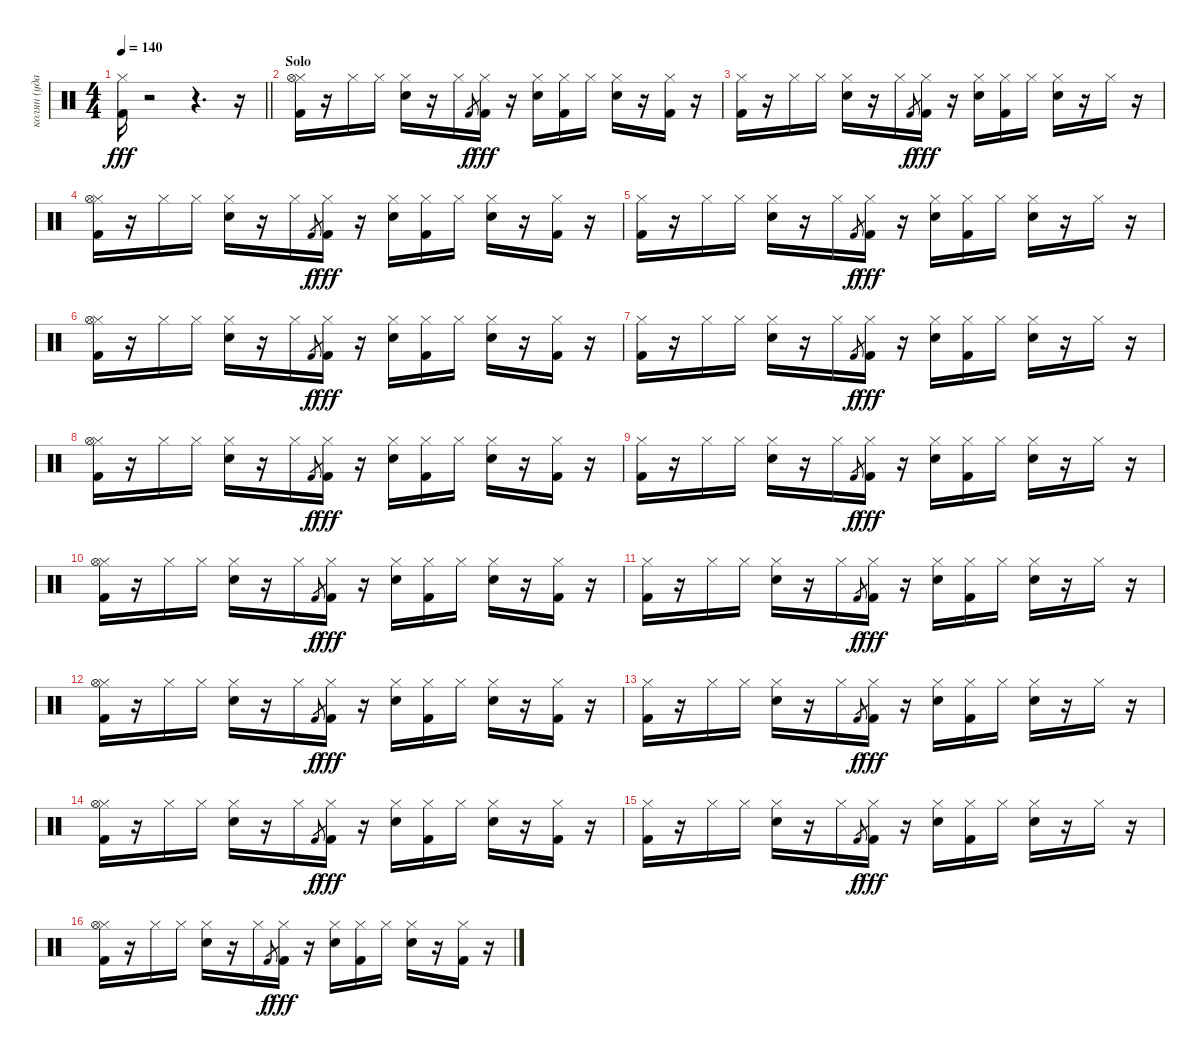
\track ("колян (ударные)" "колян (уда") {instrument percussion}
\staff {score}
\articulation defaults
\ts (4 4)
\tempo 140
\clef neutral
\barLineRight lightlight
\ks c
("Hi-Hat (closed)" "Kick (hit) 2").16{dy fff} r.2 r.4{d} r.16 |
\section ("" "Solo")
("Hi-Hat (closed)" "Hi-Hat (open)" "Kick (hit) 2").16 r.16 "Hi-Hat (closed)".16 "Hi-Hat (closed)".16 ("Hi-Hat (closed)" "Electric Snare (hit)").16 r.16 "Hi-Hat (closed)".16 "Kick (hit) 2".8{gr dy f} ("Hi-Hat (closed)" "Kick (hit) 2").16{dy fff} r.16 ("Hi-Hat (closed)" "Electric Snare (hit)").16 ("Hi-Hat (closed)" "Kick (hit) 2").16 "Hi-Hat (closed)".16 ("Hi-Hat (closed)" "Electric Snare (hit)").16 r.16 ("Hi-Hat (closed)" "Kick (hit) 2").16 r.16 |
("Hi-Hat (closed)" "Kick (hit) 2").16 r.16 "Hi-Hat (closed)".16 "Hi-Hat (closed)".16 ("Hi-Hat (closed)" "Electric Snare (hit)").16 r.16 "Hi-Hat (closed)".16 "Kick (hit) 2".8{gr dy f} ("Hi-Hat (closed)" "Kick (hit) 2").16{dy fff} r.16 ("Hi-Hat (closed)" "Electric Snare (hit)").16 ("Hi-Hat (closed)" "Kick (hit) 2").16 "Hi-Hat (closed)".16 ("Hi-Hat (closed)" "Electric Snare (hit)").16 r.16 "Hi-Hat (closed)".16 r.16 |
("Hi-Hat (closed)" "Hi-Hat (open)" "Kick (hit) 2").16 r.16 "Hi-Hat (closed)".16 "Hi-Hat (closed)".16 ("Hi-Hat (closed)" "Electric Snare (hit)").16 r.16 "Hi-Hat (closed)".16 "Kick (hit) 2".8{gr dy f} ("Hi-Hat (closed)" "Kick (hit) 2").16{dy fff} r.16 ("Hi-Hat (closed)" "Electric Snare (hit)").16 ("Hi-Hat (closed)" "Kick (hit) 2").16 "Hi-Hat (closed)".16 ("Hi-Hat (closed)" "Electric Snare (hit)").16 r.16 ("Hi-Hat (closed)" "Kick (hit) 2").16 r.16 |
("Hi-Hat (closed)" "Kick (hit) 2").16 r.16 "Hi-Hat (closed)".16 "Hi-Hat (closed)".16 ("Hi-Hat (closed)" "Electric Snare (hit)").16 r.16 "Hi-Hat (closed)".16 "Kick (hit) 2".8{gr dy f} ("Hi-Hat (closed)" "Kick (hit) 2").16{dy fff} r.16 ("Hi-Hat (closed)" "Electric Snare (hit)").16 ("Hi-Hat (closed)" "Kick (hit) 2").16 "Hi-Hat (closed)".16 ("Hi-Hat (closed)" "Electric Snare (hit)").16 r.16 "Hi-Hat (closed)".16 r.16 |
("Hi-Hat (closed)" "Hi-Hat (open)" "Kick (hit) 2").16 r.16 "Hi-Hat (closed)".16 "Hi-Hat (closed)".16 ("Hi-Hat (closed)" "Electric Snare (hit)").16 r.16 "Hi-Hat (closed)".16 "Kick (hit) 2".8{gr dy f} ("Hi-Hat (closed)" "Kick (hit) 2").16{dy fff} r.16 ("Hi-Hat (closed)" "Electric Snare (hit)").16 ("Hi-Hat (closed)" "Kick (hit) 2").16 "Hi-Hat (closed)".16 ("Hi-Hat (closed)" "Electric Snare (hit)").16 r.16 ("Hi-Hat (closed)" "Kick (hit) 2").16 r.16 |
("Hi-Hat (closed)" "Kick (hit) 2").16 r.16 "Hi-Hat (closed)".16 "Hi-Hat (closed)".16 ("Hi-Hat (closed)" "Electric Snare (hit)").16 r.16 "Hi-Hat (closed)".16 "Kick (hit) 2".8{gr dy f} ("Hi-Hat (closed)" "Kick (hit) 2").16{dy fff} r.16 ("Hi-Hat (closed)" "Electric Snare (hit)").16 ("Hi-Hat (closed)" "Kick (hit) 2").16 "Hi-Hat (closed)".16 ("Hi-Hat (closed)" "Electric Snare (hit)").16 r.16 "Hi-Hat (closed)".16 r.16 |
("Hi-Hat (closed)" "Hi-Hat (open)" "Kick (hit) 2").16 r.16 "Hi-Hat (closed)".16 "Hi-Hat (closed)".16 ("Hi-Hat (closed)" "Electric Snare (hit)").16 r.16 "Hi-Hat (closed)".16 "Kick (hit) 2".8{gr dy f} ("Hi-Hat (closed)" "Kick (hit) 2").16{dy fff} r.16 ("Hi-Hat (closed)" "Electric Snare (hit)").16 ("Hi-Hat (closed)" "Kick (hit) 2").16 "Hi-Hat (closed)".16 ("Hi-Hat (closed)" "Electric Snare (hit)").16 r.16 ("Hi-Hat (closed)" "Kick (hit) 2").16 r.16 |
("Hi-Hat (closed)" "Kick (hit) 2").16 r.16 "Hi-Hat (closed)".16 "Hi-Hat (closed)".16 ("Hi-Hat (closed)" "Electric Snare (hit)").16 r.16 "Hi-Hat (closed)".16 "Kick (hit) 2".8{gr dy f} ("Hi-Hat (closed)" "Kick (hit) 2").16{dy fff} r.16 ("Hi-Hat (closed)" "Electric Snare (hit)").16 ("Hi-Hat (closed)" "Kick (hit) 2").16 "Hi-Hat (closed)".16 ("Hi-Hat (closed)" "Electric Snare (hit)").16 r.16 "Hi-Hat (closed)".16 r.16 |
("Hi-Hat (closed)" "Hi-Hat (open)" "Kick (hit) 2").16 r.16 "Hi-Hat (closed)".16 "Hi-Hat (closed)".16 ("Hi-Hat (closed)" "Electric Snare (hit)").16 r.16 "Hi-Hat (closed)".16 "Kick (hit) 2".8{gr dy f} ("Hi-Hat (closed)" "Kick (hit) 2").16{dy fff} r.16 ("Hi-Hat (closed)" "Electric Snare (hit)").16 ("Hi-Hat (closed)" "Kick (hit) 2").16 "Hi-Hat (closed)".16 ("Hi-Hat (closed)" "Electric Snare (hit)").16 r.16 ("Hi-Hat (closed)" "Kick (hit) 2").16 r.16 |
("Hi-Hat (closed)" "Kick (hit) 2").16 r.16 "Hi-Hat (closed)".16 "Hi-Hat (closed)".16 ("Hi-Hat (closed)" "Electric Snare (hit)").16 r.16 "Hi-Hat (closed)".16 "Kick (hit) 2".8{gr dy f} ("Hi-Hat (closed)" "Kick (hit) 2").16{dy fff} r.16 ("Hi-Hat (closed)" "Electric Snare (hit)").16 ("Hi-Hat (closed)" "Kick (hit) 2").16 "Hi-Hat (closed)".16 ("Hi-Hat (closed)" "Electric Snare (hit)").16 r.16 "Hi-Hat (closed)".16 r.16 |
("Hi-Hat (closed)" "Hi-Hat (open)" "Kick (hit) 2").16 r.16 "Hi-Hat (closed)".16 "Hi-Hat (closed)".16 ("Hi-Hat (closed)" "Electric Snare (hit)").16 r.16 "Hi-Hat (closed)".16 "Kick (hit) 2".8{gr dy f} ("Hi-Hat (closed)" "Kick (hit) 2").16{dy fff} r.16 ("Hi-Hat (closed)" "Electric Snare (hit)").16 ("Hi-Hat (closed)" "Kick (hit) 2").16 "Hi-Hat (closed)".16 ("Hi-Hat (closed)" "Electric Snare (hit)").16 r.16 ("Hi-Hat (closed)" "Kick (hit) 2").16 r.16 |
("Hi-Hat (closed)" "Kick (hit) 2").16 r.16 "Hi-Hat (closed)".16 "Hi-Hat (closed)".16 ("Hi-Hat (closed)" "Electric Snare (hit)").16 r.16 "Hi-Hat (closed)".16 "Kick (hit) 2".8{gr dy f} ("Hi-Hat (closed)" "Kick (hit) 2").16{dy fff} r.16 ("Hi-Hat (closed)" "Electric Snare (hit)").16 ("Hi-Hat (closed)" "Kick (hit) 2").16 "Hi-Hat (closed)".16 ("Hi-Hat (closed)" "Electric Snare (hit)").16 r.16 "Hi-Hat (closed)".16 r.16 |
("Hi-Hat (closed)" "Hi-Hat (open)" "Kick (hit) 2").16 r.16 "Hi-Hat (closed)".16 "Hi-Hat (closed)".16 ("Hi-Hat (closed)" "Electric Snare (hit)").16 r.16 "Hi-Hat (closed)".16 "Kick (hit) 2".8{gr dy f} ("Hi-Hat (closed)" "Kick (hit) 2").16{dy fff} r.16 ("Hi-Hat (closed)" "Electric Snare (hit)").16 ("Hi-Hat (closed)" "Kick (hit) 2").16 "Hi-Hat (closed)".16 ("Hi-Hat (closed)" "Electric Snare (hit)").16 r.16 ("Hi-Hat (closed)" "Kick (hit) 2").16 r.16 |
("Hi-Hat (closed)" "Kick (hit) 2").16 r.16 "Hi-Hat (closed)".16 "Hi-Hat (closed)".16 ("Hi-Hat (closed)" "Electric Snare (hit)").16 r.16 "Hi-Hat (closed)".16 "Kick (hit) 2".8{gr dy f} ("Hi-Hat (closed)" "Kick (hit) 2").16{dy fff} r.16 ("Hi-Hat (closed)" "Electric Snare (hit)").16 ("Hi-Hat (closed)" "Kick (hit) 2").16 "Hi-Hat (closed)".16 ("Hi-Hat (closed)" "Electric Snare (hit)").16 r.16 "Hi-Hat (closed)".16 r.16 |
("Hi-Hat (closed)" "Hi-Hat (open)" "Kick (hit) 2").16 r.16 "Hi-Hat (closed)".16 "Hi-Hat (closed)".16 ("Hi-Hat (closed)" "Electric Snare (hit)").16 r.16 "Hi-Hat (closed)".16 "Kick (hit) 2".8{gr dy f} ("Hi-Hat (closed)" "Kick (hit) 2").16{dy fff} r.16 ("Hi-Hat (closed)" "Electric Snare (hit)").16 ("Hi-Hat (closed)" "Kick (hit) 2").16 "Hi-Hat (closed)".16 ("Hi-Hat (closed)" "Electric Snare (hit)").16 r.16 ("Hi-Hat (closed)" "Kick (hit) 2").16 r.16
